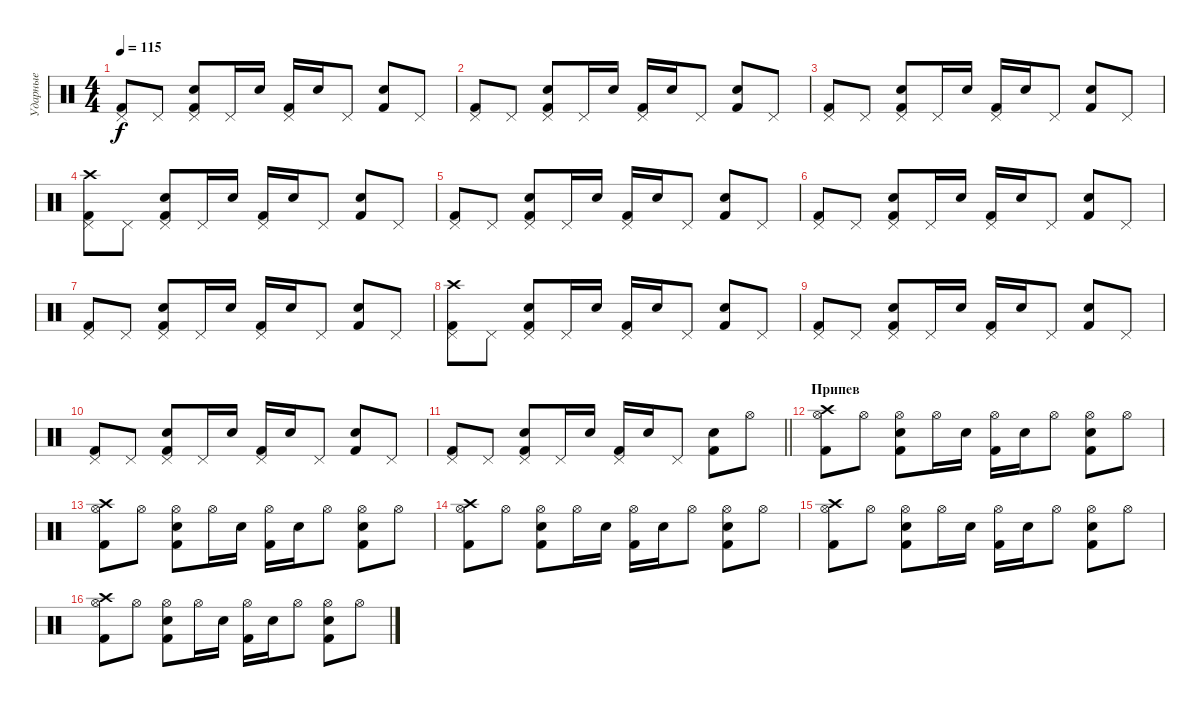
\track ("Ударные" "Ударные") {instrument percussion}
\staff {score}
\articulation defaults
\ts (4 4)
\tempo 115
\clef neutral
\ks c
("Pedal Hi-Hat (hit)" "Kick (hit) 2").8{dy f} "Pedal Hi-Hat (hit)".8 ("Pedal Hi-Hat (hit)" "Electric Snare (hit)" "Kick (hit) 2").8 "Pedal Hi-Hat (hit)".16 "Electric Snare (hit)".16 ("Pedal Hi-Hat (hit)" "Kick (hit) 2").16 "Electric Snare (hit)".16 "Pedal Hi-Hat (hit)".8 ("Electric Snare (hit)" "Kick (hit) 2").8 "Pedal Hi-Hat (hit)".8 |
("Pedal Hi-Hat (hit)" "Kick (hit) 2").8 "Pedal Hi-Hat (hit)".8 ("Pedal Hi-Hat (hit)" "Electric Snare (hit)" "Kick (hit) 2").8 "Pedal Hi-Hat (hit)".16 "Electric Snare (hit)".16 ("Pedal Hi-Hat (hit)" "Kick (hit) 2").16 "Electric Snare (hit)".16 "Pedal Hi-Hat (hit)".8 ("Electric Snare (hit)" "Kick (hit) 2").8 "Pedal Hi-Hat (hit)".8 |
("Pedal Hi-Hat (hit)" "Kick (hit) 2").8 "Pedal Hi-Hat (hit)".8 ("Pedal Hi-Hat (hit)" "Electric Snare (hit)" "Kick (hit) 2").8 "Pedal Hi-Hat (hit)".16 "Electric Snare (hit)".16 ("Pedal Hi-Hat (hit)" "Kick (hit) 2").16 "Electric Snare (hit)".16 "Pedal Hi-Hat (hit)".8 ("Electric Snare (hit)" "Kick (hit) 2").8 "Pedal Hi-Hat (hit)".8 |
("Pedal Hi-Hat (hit)" "Crash high (hit)" "Kick (hit) 2").8 "Pedal Hi-Hat (hit)".8 ("Pedal Hi-Hat (hit)" "Electric Snare (hit)" "Kick (hit) 2").8 "Pedal Hi-Hat (hit)".16 "Electric Snare (hit)".16 ("Pedal Hi-Hat (hit)" "Kick (hit) 2").16 "Electric Snare (hit)".16 "Pedal Hi-Hat (hit)".8 ("Electric Snare (hit)" "Kick (hit) 2").8 "Pedal Hi-Hat (hit)".8 |
("Pedal Hi-Hat (hit)" "Kick (hit) 2").8 "Pedal Hi-Hat (hit)".8 ("Pedal Hi-Hat (hit)" "Electric Snare (hit)" "Kick (hit) 2").8 "Pedal Hi-Hat (hit)".16 "Electric Snare (hit)".16 ("Pedal Hi-Hat (hit)" "Kick (hit) 2").16 "Electric Snare (hit)".16 "Pedal Hi-Hat (hit)".8 ("Electric Snare (hit)" "Kick (hit) 2").8 "Pedal Hi-Hat (hit)".8 |
("Pedal Hi-Hat (hit)" "Kick (hit) 2").8 "Pedal Hi-Hat (hit)".8 ("Pedal Hi-Hat (hit)" "Electric Snare (hit)" "Kick (hit) 2").8 "Pedal Hi-Hat (hit)".16 "Electric Snare (hit)".16 ("Pedal Hi-Hat (hit)" "Kick (hit) 2").16 "Electric Snare (hit)".16 "Pedal Hi-Hat (hit)".8 ("Electric Snare (hit)" "Kick (hit) 2").8 "Pedal Hi-Hat (hit)".8 |
("Pedal Hi-Hat (hit)" "Kick (hit) 2").8 "Pedal Hi-Hat (hit)".8 ("Pedal Hi-Hat (hit)" "Electric Snare (hit)" "Kick (hit) 2").8 "Pedal Hi-Hat (hit)".16 "Electric Snare (hit)".16 ("Pedal Hi-Hat (hit)" "Kick (hit) 2").16 "Electric Snare (hit)".16 "Pedal Hi-Hat (hit)".8 ("Electric Snare (hit)" "Kick (hit) 2").8 "Pedal Hi-Hat (hit)".8 |
("Pedal Hi-Hat (hit)" "Crash high (hit)" "Kick (hit) 2").8 "Pedal Hi-Hat (hit)".8 ("Pedal Hi-Hat (hit)" "Electric Snare (hit)" "Kick (hit) 2").8 "Pedal Hi-Hat (hit)".16 "Electric Snare (hit)".16 ("Pedal Hi-Hat (hit)" "Kick (hit) 2").16 "Electric Snare (hit)".16 "Pedal Hi-Hat (hit)".8 ("Electric Snare (hit)" "Kick (hit) 2").8 "Pedal Hi-Hat (hit)".8 |
("Pedal Hi-Hat (hit)" "Kick (hit) 2").8 "Pedal Hi-Hat (hit)".8 ("Pedal Hi-Hat (hit)" "Electric Snare (hit)" "Kick (hit) 2").8 "Pedal Hi-Hat (hit)".16 "Electric Snare (hit)".16 ("Pedal Hi-Hat (hit)" "Kick (hit) 2").16 "Electric Snare (hit)".16 "Pedal Hi-Hat (hit)".8 ("Electric Snare (hit)" "Kick (hit) 2").8 "Pedal Hi-Hat (hit)".8 |
("Pedal Hi-Hat (hit)" "Kick (hit) 2").8 "Pedal Hi-Hat (hit)".8 ("Pedal Hi-Hat (hit)" "Electric Snare (hit)" "Kick (hit) 2").8 "Pedal Hi-Hat (hit)".16 "Electric Snare (hit)".16 ("Pedal Hi-Hat (hit)" "Kick (hit) 2").16 "Electric Snare (hit)".16 "Pedal Hi-Hat (hit)".8 ("Electric Snare (hit)" "Kick (hit) 2").8 "Pedal Hi-Hat (hit)".8 |
\barLineRight lightlight
("Pedal Hi-Hat (hit)" "Kick (hit) 2").8 "Pedal Hi-Hat (hit)".8 ("Pedal Hi-Hat (hit)" "Electric Snare (hit)" "Kick (hit) 2").8 "Pedal Hi-Hat (hit)".16 "Electric Snare (hit)".16 ("Pedal Hi-Hat (hit)" "Kick (hit) 2").16 "Electric Snare (hit)".16 "Pedal Hi-Hat (hit)".8 ("Electric Snare (hit)" "Kick (hit) 2").8 "Hi-Hat (open)".8 |
\section ("" "Припев")
("Hi-Hat (open)" "Crash high (hit)" "Kick (hit) 2").8 "Hi-Hat (open)".8 ("Hi-Hat (open)" "Electric Snare (hit)" "Kick (hit) 2").8 "Hi-Hat (open)".16 "Electric Snare (hit)".16 ("Hi-Hat (open)" "Kick (hit) 2").16 "Electric Snare (hit)".16 "Hi-Hat (open)".8 ("Hi-Hat (open)" "Electric Snare (hit)" "Kick (hit) 2").8 "Hi-Hat (open)".8 |
("Hi-Hat (open)" "Crash high (hit)" "Kick (hit) 2").8 "Hi-Hat (open)".8 ("Hi-Hat (open)" "Electric Snare (hit)" "Kick (hit) 2").8 "Hi-Hat (open)".16 "Electric Snare (hit)".16 ("Hi-Hat (open)" "Kick (hit) 2").16 "Electric Snare (hit)".16 "Hi-Hat (open)".8 ("Hi-Hat (open)" "Electric Snare (hit)" "Kick (hit) 2").8 "Hi-Hat (open)".8 |
("Hi-Hat (open)" "Crash high (hit)" "Kick (hit) 2").8 "Hi-Hat (open)".8 ("Hi-Hat (open)" "Electric Snare (hit)" "Kick (hit) 2").8 "Hi-Hat (open)".16 "Electric Snare (hit)".16 ("Hi-Hat (open)" "Kick (hit) 2").16 "Electric Snare (hit)".16 "Hi-Hat (open)".8 ("Hi-Hat (open)" "Electric Snare (hit)" "Kick (hit) 2").8 "Hi-Hat (open)".8 |
("Hi-Hat (open)" "Crash high (hit)" "Kick (hit) 2").8 "Hi-Hat (open)".8 ("Hi-Hat (open)" "Electric Snare (hit)" "Kick (hit) 2").8 "Hi-Hat (open)".16 "Electric Snare (hit)".16 ("Hi-Hat (open)" "Kick (hit) 2").16 "Electric Snare (hit)".16 "Hi-Hat (open)".8 ("Hi-Hat (open)" "Electric Snare (hit)" "Kick (hit) 2").8 "Hi-Hat (open)".8 |
("Hi-Hat (open)" "Crash high (hit)" "Kick (hit) 2").8 "Hi-Hat (open)".8 ("Hi-Hat (open)" "Electric Snare (hit)" "Kick (hit) 2").8 "Hi-Hat (open)".16 "Electric Snare (hit)".16 ("Hi-Hat (open)" "Kick (hit) 2").16 "Electric Snare (hit)".16 "Hi-Hat (open)".8 ("Hi-Hat (open)" "Electric Snare (hit)" "Kick (hit) 2").8 "Hi-Hat (open)".8
